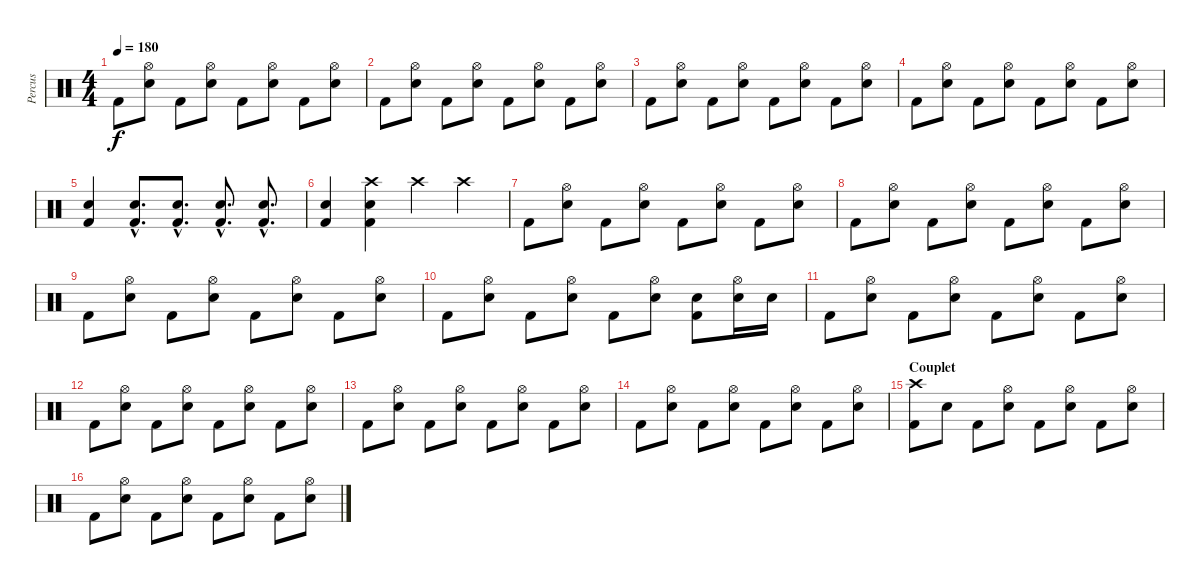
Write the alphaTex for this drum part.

\track ("Percus" "Percus") {instrument percussion}
\staff {score}
\articulation defaults
\ts (4 4)
\tempo 180
\clef neutral
\ks c "Kick (hit) 2".8{dy f}
("Hi-Hat (open)" "Snare (hit) 2").8 "Kick (hit) 2".8 ("Hi-Hat (open)" "Snare (hit) 2").8 "Kick (hit) 2".8 ("Hi-Hat (open)" "Snare (hit) 2").8 "Kick (hit) 2".8 ("Hi-Hat (open)" "Snare (hit) 2").8 |
"Kick (hit) 2".8 ("Hi-Hat (open)" "Snare (hit) 2").8 "Kick (hit) 2".8 ("Hi-Hat (open)" "Snare (hit) 2").8 "Kick (hit) 2".8 ("Hi-Hat (open)" "Snare (hit) 2").8 "Kick (hit) 2".8 ("Hi-Hat (open)" "Snare (hit) 2").8 |
"Kick (hit) 2".8 ("Hi-Hat (open)" "Snare (hit) 2").8 "Kick (hit) 2".8 ("Hi-Hat (open)" "Snare (hit) 2").8 "Kick (hit) 2".8 ("Hi-Hat (open)" "Snare (hit) 2").8 "Kick (hit) 2".8 ("Hi-Hat (open)" "Snare (hit) 2").8 |
"Kick (hit) 2".8 ("Hi-Hat (open)" "Snare (hit) 2").8 "Kick (hit) 2".8 ("Hi-Hat (open)" "Snare (hit) 2").8 "Kick (hit) 2".8 ("Hi-Hat (open)" "Snare (hit) 2").8 "Kick (hit) 2".8 ("Hi-Hat (open)" "Snare (hit) 2").8 |
("Snare (hit) 2" "Kick (hit) 2").4 ("Snare (hit) 2"{hac} "Kick (hit) 2"{hac}).8{d} ("Snare (hit) 2"{hac} "Kick (hit) 2"{hac}).8{d} ("Snare (hit) 2"{hac} "Kick (hit) 2"{hac}).8{d} ("Snare (hit) 2"{hac} "Kick (hit) 2"{hac}).8{d} |
("Snare (hit) 2" "Kick (hit) 2").4 ("Crash high (hit)" "Snare (hit) 2" "Kick (hit) 2").4 "Crash high (hit)".4 "Crash high (hit)".4 |
\section ("" "")
"Kick (hit) 2".8 ("Hi-Hat (open)" "Snare (hit) 2").8 "Kick (hit) 2".8 ("Hi-Hat (open)" "Snare (hit) 2").8 "Kick (hit) 2".8 ("Hi-Hat (open)" "Snare (hit) 2").8 "Kick (hit) 2".8 ("Hi-Hat (open)" "Snare (hit) 2").8 |
"Kick (hit) 2".8 ("Hi-Hat (open)" "Snare (hit) 2").8 "Kick (hit) 2".8 ("Hi-Hat (open)" "Snare (hit) 2").8 "Kick (hit) 2".8 ("Hi-Hat (open)" "Snare (hit) 2").8 "Kick (hit) 2".8 ("Hi-Hat (open)" "Snare (hit) 2").8 |
"Kick (hit) 2".8 ("Hi-Hat (open)" "Snare (hit) 2").8 "Kick (hit) 2".8 ("Hi-Hat (open)" "Snare (hit) 2").8 "Kick (hit) 2".8 ("Hi-Hat (open)" "Snare (hit) 2").8 "Kick (hit) 2".8 ("Hi-Hat (open)" "Snare (hit) 2").8 |
"Kick (hit) 2".8 ("Hi-Hat (open)" "Snare (hit) 2").8 "Kick (hit) 2".8 ("Hi-Hat (open)" "Snare (hit) 2").8 "Kick (hit) 2".8 ("Hi-Hat (open)" "Snare (hit) 2").8 ("Snare (hit) 2" "Kick (hit) 2").8 ("Hi-Hat (open)" "Snare (hit) 2").16 "Snare (hit) 2".16 |
"Kick (hit) 2".8 ("Hi-Hat (open)" "Snare (hit) 2").8 "Kick (hit) 2".8 ("Hi-Hat (open)" "Snare (hit) 2").8 "Kick (hit) 2".8 ("Hi-Hat (open)" "Snare (hit) 2").8 "Kick (hit) 2".8 ("Hi-Hat (open)" "Snare (hit) 2").8 |
"Kick (hit) 2".8 ("Hi-Hat (open)" "Snare (hit) 2").8 "Kick (hit) 2".8 ("Hi-Hat (open)" "Snare (hit) 2").8 "Kick (hit) 2".8 ("Hi-Hat (open)" "Snare (hit) 2").8 "Kick (hit) 2".8 ("Hi-Hat (open)" "Snare (hit) 2").8 |
"Kick (hit) 2".8 ("Hi-Hat (open)" "Snare (hit) 2").8 "Kick (hit) 2".8 ("Hi-Hat (open)" "Snare (hit) 2").8 "Kick (hit) 2".8 ("Hi-Hat (open)" "Snare (hit) 2").8 "Kick (hit) 2".8 ("Hi-Hat (open)" "Snare (hit) 2").8 |
"Kick (hit) 2".8 ("Hi-Hat (open)" "Snare (hit) 2").8 "Kick (hit) 2".8 ("Hi-Hat (open)" "Snare (hit) 2").8 "Kick (hit) 2".8 ("Hi-Hat (open)" "Snare (hit) 2").8 "Kick (hit) 2".8 ("Hi-Hat (open)" "Snare (hit) 2").8 |
\section ("" "Couplet")
("Crash high (hit)" "Kick (hit) 2").8 "Snare (hit) 2".8 "Kick (hit) 2".8 ("Hi-Hat (open)" "Snare (hit) 2").8 "Kick (hit) 2".8 ("Hi-Hat (open)" "Snare (hit) 2").8 "Kick (hit) 2".8 ("Hi-Hat (open)" "Snare (hit) 2").8 |
"Kick (hit) 2".8 ("Hi-Hat (open)" "Snare (hit) 2").8 "Kick (hit) 2".8 ("Hi-Hat (open)" "Snare (hit) 2").8 "Kick (hit) 2".8 ("Hi-Hat (open)" "Snare (hit) 2").8 "Kick (hit) 2".8 ("Hi-Hat (open)" "Snare (hit) 2").8
